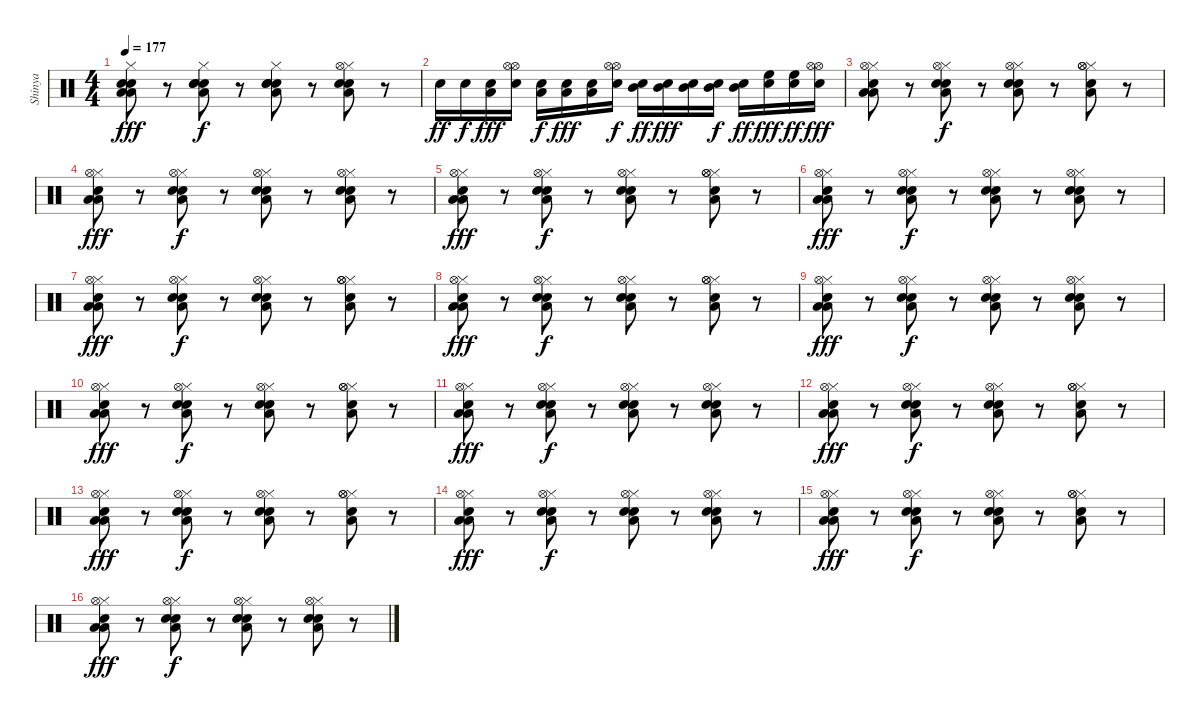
\track ("Shinya " "Shinya ") {instrument percussion}
\staff {score}
\articulation defaults
\ts (4 4)
\tempo 177
\clef neutral
\ks c
("Hi-Hat (closed)" "Electric Snare (hit)" "Low Tom (hit)" "Electric Snare (hit)" "Low Tom (hit)").8{dy fff} r.8 ("Hi-Hat (closed)" "Electric Snare (hit)" "Low Tom (hit)" "Electric Snare (hit)" "Snare (hit) 2").8{dy f} r.8 ("Hi-Hat (closed)" "Electric Snare (hit)" "Electric Snare (hit)" "Snare (hit) 2" "Low Tom (hit)").8 r.8 ("Hi-Hat (closed)" "Hi-Hat (open)" "Electric Snare (hit)" "Electric Snare (hit)" "Low Tom (hit)").8 r.8 |
"Electric Snare (hit)".16{dy ff} "Electric Snare (hit)".16{dy f} ("Electric Snare (hit)" "Low Floor Tom (hit)").16{dy fff} ("Electric Snare (hit)" "Hi-Hat (open)" "Hi-Hat (open)").16 ("Electric Snare (hit)" "Low Floor Tom (hit)").16{dy f} ("Electric Snare (hit)" "Low Tom (hit)").16{dy fff} ("Electric Snare (hit)" "Low Tom (hit)").16 ("Electric Snare (hit)" "Hi-Hat (open)" "Hi-Hat (open)").16{dy f} ("Electric Snare (hit)" "Mid Tom (hit)").16{dy ff} ("Electric Snare (hit)" "Mid Tom (hit)").16{dy fff} ("Electric Snare (hit)" "Mid Tom (hit)").16 ("Electric Snare (hit)" "Mid Tom (hit)").16{dy f} ("Electric Snare (hit)" "Mid Tom (hit)").16{dy ff} ("Electric Snare (hit)" "High Floor Tom (hit)").16{dy fff} ("Electric Snare (hit)" "High Floor Tom (hit)").16{dy ff} ("Electric Snare (hit)" "Hi-Hat (open)" "Hi-Hat (open)").16{dy fff} |
("Hi-Hat (closed)" "Electric Snare (hit)" "Low Tom (hit)" "Hi-Hat (open)" "Low Tom (hit)").8 r.8 ("Hi-Hat (closed)" "Electric Snare (hit)" "Low Tom (hit)" "Hi-Hat (open)" "Snare (hit) 2").8{dy f} r.8 ("Hi-Hat (closed)" "Electric Snare (hit)" "Hi-Hat (open)" "Snare (hit) 2" "Low Tom (hit)").8 r.8 ("Hi-Hat (closed)" "Hi-Hat (open)" "Electric Snare (hit)" "Hi-Hat (open)" "Low Tom (hit)").8 r.8 |
("Hi-Hat (closed)" "Electric Snare (hit)" "Low Tom (hit)" "Hi-Hat (open)" "Low Tom (hit)").8{dy fff} r.8 ("Hi-Hat (closed)" "Electric Snare (hit)" "Low Tom (hit)" "Hi-Hat (open)" "Snare (hit) 2").8{dy f} r.8 ("Hi-Hat (closed)" "Electric Snare (hit)" "Electric Snare (hit)" "Hi-Hat (open)" "Low Tom (hit)").8 r.8 ("Hi-Hat (closed)" "Electric Snare (hit)" "Electric Snare (hit)" "Hi-Hat (open)" "Low Tom (hit)").8 r.8 |
("Hi-Hat (closed)" "Electric Snare (hit)" "Low Tom (hit)" "Hi-Hat (open)" "Low Tom (hit)").8{dy fff} r.8 ("Hi-Hat (closed)" "Electric Snare (hit)" "Low Tom (hit)" "Hi-Hat (open)" "Snare (hit) 2").8{dy f} r.8 ("Hi-Hat (closed)" "Electric Snare (hit)" "Hi-Hat (open)" "Snare (hit) 2" "Low Tom (hit)").8 r.8 ("Hi-Hat (closed)" "Hi-Hat (open)" "Electric Snare (hit)" "Hi-Hat (open)" "Low Tom (hit)").8 r.8 |
("Hi-Hat (closed)" "Electric Snare (hit)" "Low Tom (hit)" "Hi-Hat (open)" "Low Tom (hit)").8{dy fff} r.8 ("Hi-Hat (closed)" "Electric Snare (hit)" "Low Tom (hit)" "Hi-Hat (open)" "Snare (hit) 2").8{dy f} r.8 ("Hi-Hat (closed)" "Electric Snare (hit)" "Electric Snare (hit)" "Hi-Hat (open)" "Low Tom (hit)").8 r.8 ("Hi-Hat (closed)" "Electric Snare (hit)" "Electric Snare (hit)" "Hi-Hat (open)" "Low Tom (hit)").8 r.8 |
("Hi-Hat (closed)" "Electric Snare (hit)" "Low Tom (hit)" "Hi-Hat (open)" "Low Tom (hit)").8{dy fff} r.8 ("Hi-Hat (closed)" "Electric Snare (hit)" "Low Tom (hit)" "Hi-Hat (open)" "Snare (hit) 2").8{dy f} r.8 ("Hi-Hat (closed)" "Electric Snare (hit)" "Hi-Hat (open)" "Snare (hit) 2" "Low Tom (hit)").8 r.8 ("Hi-Hat (closed)" "Hi-Hat (open)" "Electric Snare (hit)" "Hi-Hat (open)" "Low Tom (hit)").8 r.8 |
("Hi-Hat (closed)" "Electric Snare (hit)" "Low Tom (hit)" "Hi-Hat (open)" "Low Tom (hit)").8{dy fff} r.8 ("Hi-Hat (closed)" "Electric Snare (hit)" "Low Tom (hit)" "Hi-Hat (open)" "Snare (hit) 2").8{dy f} r.8 ("Hi-Hat (closed)" "Electric Snare (hit)" "Hi-Hat (open)" "Snare (hit) 2" "Low Tom (hit)").8 r.8 ("Hi-Hat (closed)" "Hi-Hat (open)" "Electric Snare (hit)" "Hi-Hat (open)" "Low Tom (hit)").8 r.8 |
("Hi-Hat (closed)" "Electric Snare (hit)" "Low Tom (hit)" "Hi-Hat (open)" "Low Tom (hit)").8{dy fff} r.8 ("Hi-Hat (closed)" "Electric Snare (hit)" "Low Tom (hit)" "Hi-Hat (open)" "Snare (hit) 2").8{dy f} r.8 ("Hi-Hat (closed)" "Electric Snare (hit)" "Electric Snare (hit)" "Hi-Hat (open)" "Low Tom (hit)").8 r.8 ("Hi-Hat (closed)" "Electric Snare (hit)" "Electric Snare (hit)" "Hi-Hat (open)" "Low Tom (hit)").8 r.8 |
("Hi-Hat (closed)" "Electric Snare (hit)" "Low Tom (hit)" "Hi-Hat (open)" "Low Tom (hit)").8{dy fff} r.8 ("Hi-Hat (closed)" "Electric Snare (hit)" "Low Tom (hit)" "Hi-Hat (open)" "Snare (hit) 2").8{dy f} r.8 ("Hi-Hat (closed)" "Electric Snare (hit)" "Hi-Hat (open)" "Snare (hit) 2" "Low Tom (hit)").8 r.8 ("Hi-Hat (closed)" "Hi-Hat (open)" "Electric Snare (hit)" "Hi-Hat (open)" "Low Tom (hit)").8 r.8 |
("Hi-Hat (closed)" "Electric Snare (hit)" "Low Tom (hit)" "Hi-Hat (open)" "Low Tom (hit)").8{dy fff} r.8 ("Hi-Hat (closed)" "Electric Snare (hit)" "Low Tom (hit)" "Hi-Hat (open)" "Snare (hit) 2").8{dy f} r.8 ("Hi-Hat (closed)" "Electric Snare (hit)" "Electric Snare (hit)" "Hi-Hat (open)" "Low Tom (hit)").8 r.8 ("Hi-Hat (closed)" "Electric Snare (hit)" "Electric Snare (hit)" "Hi-Hat (open)" "Low Tom (hit)").8 r.8 |
("Hi-Hat (closed)" "Electric Snare (hit)" "Low Tom (hit)" "Hi-Hat (open)" "Low Tom (hit)").8{dy fff} r.8 ("Hi-Hat (closed)" "Electric Snare (hit)" "Low Tom (hit)" "Hi-Hat (open)" "Snare (hit) 2").8{dy f} r.8 ("Hi-Hat (closed)" "Electric Snare (hit)" "Hi-Hat (open)" "Snare (hit) 2" "Low Tom (hit)").8 r.8 ("Hi-Hat (closed)" "Hi-Hat (open)" "Electric Snare (hit)" "Hi-Hat (open)" "Low Tom (hit)").8 r.8 |
("Hi-Hat (closed)" "Electric Snare (hit)" "Low Tom (hit)" "Hi-Hat (open)" "Low Tom (hit)").8{dy fff} r.8 ("Hi-Hat (closed)" "Electric Snare (hit)" "Low Tom (hit)" "Hi-Hat (open)" "Snare (hit) 2").8{dy f} r.8 ("Hi-Hat (closed)" "Electric Snare (hit)" "Hi-Hat (open)" "Snare (hit) 2" "Low Tom (hit)").8 r.8 ("Hi-Hat (closed)" "Hi-Hat (open)" "Electric Snare (hit)" "Hi-Hat (open)" "Low Tom (hit)").8 r.8 |
("Hi-Hat (closed)" "Electric Snare (hit)" "Low Tom (hit)" "Hi-Hat (open)" "Low Tom (hit)").8{dy fff} r.8 ("Hi-Hat (closed)" "Electric Snare (hit)" "Low Tom (hit)" "Hi-Hat (open)" "Snare (hit) 2").8{dy f} r.8 ("Hi-Hat (closed)" "Electric Snare (hit)" "Electric Snare (hit)" "Hi-Hat (open)" "Low Tom (hit)").8 r.8 ("Hi-Hat (closed)" "Electric Snare (hit)" "Electric Snare (hit)" "Hi-Hat (open)" "Low Tom (hit)").8 r.8 |
("Hi-Hat (closed)" "Electric Snare (hit)" "Low Tom (hit)" "Hi-Hat (open)" "Low Tom (hit)").8{dy fff} r.8 ("Hi-Hat (closed)" "Electric Snare (hit)" "Low Tom (hit)" "Hi-Hat (open)" "Snare (hit) 2").8{dy f} r.8 ("Hi-Hat (closed)" "Electric Snare (hit)" "Hi-Hat (open)" "Snare (hit) 2" "Low Tom (hit)").8 r.8 ("Hi-Hat (closed)" "Hi-Hat (open)" "Electric Snare (hit)" "Hi-Hat (open)" "Low Tom (hit)").8 r.8 |
("Hi-Hat (closed)" "Electric Snare (hit)" "Low Tom (hit)" "Hi-Hat (open)" "Low Tom (hit)").8{dy fff} r.8 ("Hi-Hat (closed)" "Electric Snare (hit)" "Low Tom (hit)" "Hi-Hat (open)" "Snare (hit) 2").8{dy f} r.8 ("Hi-Hat (closed)" "Electric Snare (hit)" "Electric Snare (hit)" "Hi-Hat (open)" "Low Tom (hit)").8 r.8 ("Hi-Hat (closed)" "Electric Snare (hit)" "Electric Snare (hit)" "Hi-Hat (open)" "Low Tom (hit)").8 r.8
